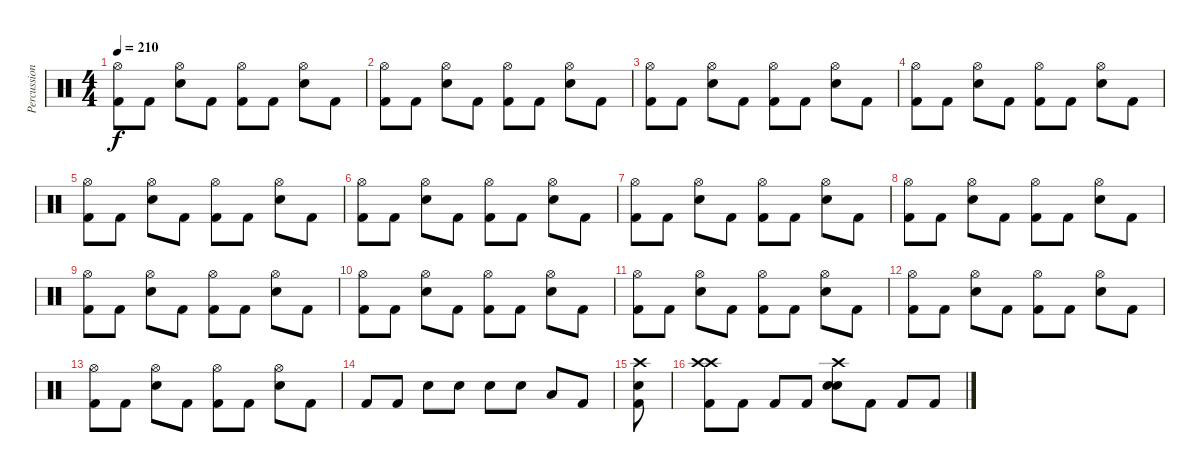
\track ("Percussion" "Percussion") {instrument percussion}
\staff {score}
\articulation defaults
\ts (4 4)
\tempo 210
\clef neutral
\ks c
("Kick (hit) 2" "Hi-Hat (open)").8{dy f} "Kick (hit) 2".8 ("Snare (hit) 2" "Hi-Hat (open)").8 "Kick (hit) 2".8 ("Kick (hit) 2" "Hi-Hat (open)").8 "Kick (hit) 2".8 ("Snare (hit) 2" "Hi-Hat (open)").8 "Kick (hit) 2".8 |
("Kick (hit) 2" "Hi-Hat (open)").8 "Kick (hit) 2".8 ("Snare (hit) 2" "Hi-Hat (open)").8 "Kick (hit) 2".8 ("Kick (hit) 2" "Hi-Hat (open)").8 "Kick (hit) 2".8 ("Snare (hit) 2" "Hi-Hat (open)").8 "Kick (hit) 2".8 |
("Kick (hit) 2" "Hi-Hat (open)").8 "Kick (hit) 2".8 ("Snare (hit) 2" "Hi-Hat (open)").8 "Kick (hit) 2".8 ("Kick (hit) 2" "Hi-Hat (open)").8 "Kick (hit) 2".8 ("Snare (hit) 2" "Hi-Hat (open)").8 "Kick (hit) 2".8 |
("Kick (hit) 2" "Hi-Hat (open)").8 "Kick (hit) 2".8 ("Snare (hit) 2" "Hi-Hat (open)").8 "Kick (hit) 2".8 ("Kick (hit) 2" "Hi-Hat (open)").8 "Kick (hit) 2".8 ("Snare (hit) 2" "Hi-Hat (open)").8 "Kick (hit) 2".8 |
("Kick (hit) 2" "Hi-Hat (open)").8 "Kick (hit) 2".8 ("Snare (hit) 2" "Hi-Hat (open)").8 "Kick (hit) 2".8 ("Kick (hit) 2" "Hi-Hat (open)").8 "Kick (hit) 2".8 ("Snare (hit) 2" "Hi-Hat (open)").8 "Kick (hit) 2".8 |
("Kick (hit) 2" "Hi-Hat (open)").8 "Kick (hit) 2".8 ("Snare (hit) 2" "Hi-Hat (open)").8 "Kick (hit) 2".8 ("Kick (hit) 2" "Hi-Hat (open)").8 "Kick (hit) 2".8 ("Snare (hit) 2" "Hi-Hat (open)").8 "Kick (hit) 2".8 |
("Kick (hit) 2" "Hi-Hat (open)").8 "Kick (hit) 2".8 ("Snare (hit) 2" "Hi-Hat (open)").8 "Kick (hit) 2".8 ("Kick (hit) 2" "Hi-Hat (open)").8 "Kick (hit) 2".8 ("Snare (hit) 2" "Hi-Hat (open)").8 "Kick (hit) 2".8 |
("Kick (hit) 2" "Hi-Hat (open)").8 "Kick (hit) 2".8 ("Snare (hit) 2" "Hi-Hat (open)").8 "Kick (hit) 2".8 ("Kick (hit) 2" "Hi-Hat (open)").8 "Kick (hit) 2".8 ("Snare (hit) 2" "Hi-Hat (open)").8 "Kick (hit) 2".8 |
("Kick (hit) 2" "Hi-Hat (open)").8 "Kick (hit) 2".8 ("Snare (hit) 2" "Hi-Hat (open)").8 "Kick (hit) 2".8 ("Kick (hit) 2" "Hi-Hat (open)").8 "Kick (hit) 2".8 ("Snare (hit) 2" "Hi-Hat (open)").8 "Kick (hit) 2".8 |
("Kick (hit) 2" "Hi-Hat (open)").8 "Kick (hit) 2".8 ("Snare (hit) 2" "Hi-Hat (open)").8 "Kick (hit) 2".8 ("Kick (hit) 2" "Hi-Hat (open)").8 "Kick (hit) 2".8 ("Snare (hit) 2" "Hi-Hat (open)").8 "Kick (hit) 2".8 |
("Kick (hit) 2" "Hi-Hat (open)").8 "Kick (hit) 2".8 ("Snare (hit) 2" "Hi-Hat (open)").8 "Kick (hit) 2".8 ("Kick (hit) 2" "Hi-Hat (open)").8 "Kick (hit) 2".8 ("Snare (hit) 2" "Hi-Hat (open)").8 "Kick (hit) 2".8 |
("Kick (hit) 2" "Hi-Hat (open)").8 "Kick (hit) 2".8 ("Snare (hit) 2" "Hi-Hat (open)").8 "Kick (hit) 2".8 ("Kick (hit) 2" "Hi-Hat (open)").8 "Kick (hit) 2".8 ("Snare (hit) 2" "Hi-Hat (open)").8 "Kick (hit) 2".8 |
("Kick (hit) 2" "Hi-Hat (open)").8 "Kick (hit) 2".8 ("Snare (hit) 2" "Hi-Hat (open)").8 "Kick (hit) 2".8 ("Kick (hit) 2" "Hi-Hat (open)").8 "Kick (hit) 2".8 ("Snare (hit) 2" "Hi-Hat (open)").8 "Kick (hit) 2".8 |
"Kick (hit) 2".8 "Kick (hit) 2".8 "Snare (hit) 2".8 "Snare (hit) 2".8 "Electric Snare (hit)".8 "Electric Snare (hit)".8 "Low Floor Tom (hit)".8 "Kick (hit) 2".8 |
("Crash high (hit)" "Kick (hit) 2" "Snare (hit) 2").8 |
("Kick (hit) 2" "Crash high (hit)" "Crash high (hit)").8 "Kick (hit) 2".8 "Kick (hit) 2".8 "Kick (hit) 2".8 ("Snare (hit) 2" "Electric Snare (hit)" "Crash high (hit)").8 "Kick (hit) 2".8 "Kick (hit) 2".8 "Kick (hit) 2".8
